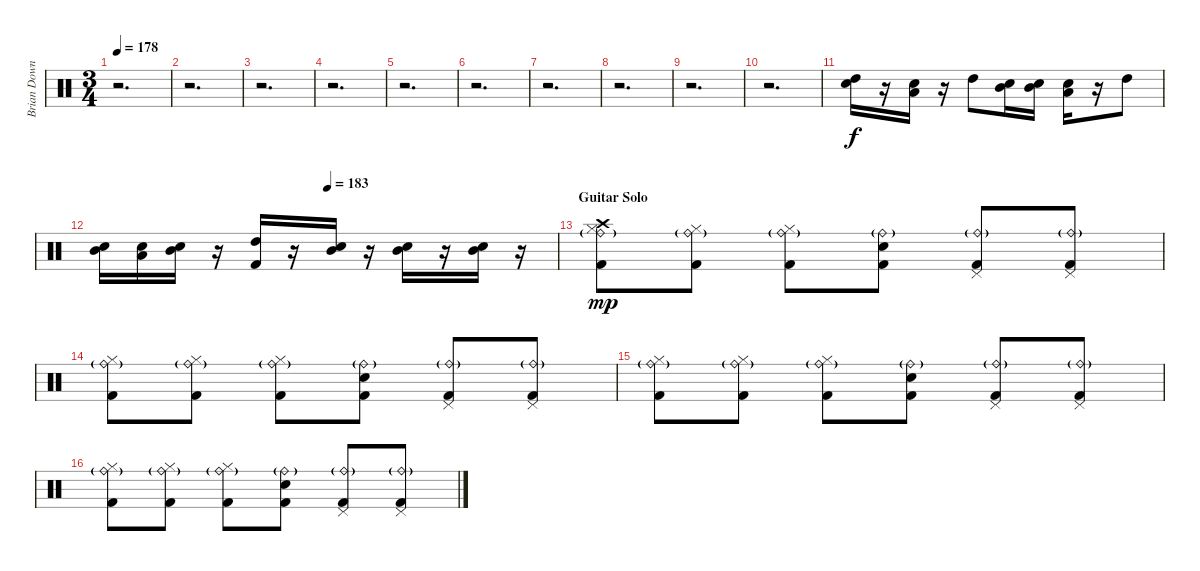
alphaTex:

\track ("Brian Downey" "Brian Down") {instrument percussion}
\staff {score}
\articulation defaults
\ts (3 4)
\tempo 178
\clef neutral
\ks c
r.2{d dy f} |
r.2{d} |
r.2{d} |
r.2{d} |
r.2{d} |
r.2{d} |
r.2{d} |
r.2{d} |
r.2{d} |
r.2{d} |
("High Tom (hit)" "Snare (hit) 2").16 r.16 ("Low Tom (hit)" "Electric Snare (hit)").16 r.16 "High Tom (hit)".8 ("Mid Tom (hit)" "Electric Snare (hit)").16 ("Mid Tom (hit)" "Electric Snare (hit)").16 ("Low Tom (hit)" "Snare (hit) 2").16 r.16 "High Tom (hit)".8 |
\tempo (183 0.5)
("Mid Tom (hit)" "Electric Snare (hit)").16 ("Low Tom (hit)" "Electric Snare (hit)").16 ("Mid Tom (hit)" "Snare (hit) 2").16 r.16 ("High Tom (hit)" "Kick (hit) 2").16 r.16 ("Electric Snare (hit)" "Mid Tom (hit)").16 r.16 ("Electric Snare (hit)" "Mid Tom (hit)").16 r.16 ("Electric Snare (hit)" "Mid Tom (hit)").16 r.16 |
\section ("" "Guitar Solo")
("Crash high (hit)" "Ride (bell)"{g} "Hi-Hat (closed)" "Kick (hit) 2").8{dy mp} ("Ride (bell)"{g} "Hi-Hat (closed)" "Kick (hit) 2").8 ("Ride (bell)"{g} "Hi-Hat (closed)" "Kick (hit) 2").8 ("Ride (bell)"{g} "Snare (hit) 2" "Kick (hit) 2").8 ("Ride (bell)"{g} "Pedal Hi-Hat (hit)" "Kick (hit) 2").8 ("Ride (bell)"{g} "Pedal Hi-Hat (hit)" "Kick (hit) 2").8 |
("Ride (bell)"{g} "Hi-Hat (closed)" "Kick (hit) 2").8 ("Ride (bell)"{g} "Hi-Hat (closed)" "Kick (hit) 2").8 ("Ride (bell)"{g} "Hi-Hat (closed)" "Kick (hit) 2").8 ("Ride (bell)"{g} "Snare (hit) 2" "Kick (hit) 2").8 ("Ride (bell)"{g} "Pedal Hi-Hat (hit)" "Kick (hit) 2").8 ("Ride (bell)"{g} "Pedal Hi-Hat (hit)" "Kick (hit) 2").8 |
("Ride (bell)"{g} "Hi-Hat (closed)" "Kick (hit) 2").8 ("Ride (bell)"{g} "Hi-Hat (closed)" "Kick (hit) 2").8 ("Ride (bell)"{g} "Hi-Hat (closed)" "Kick (hit) 2").8 ("Ride (bell)"{g} "Snare (hit) 2" "Kick (hit) 2").8 ("Ride (bell)"{g} "Pedal Hi-Hat (hit)" "Kick (hit) 2").8 ("Ride (bell)"{g} "Pedal Hi-Hat (hit)" "Kick (hit) 2").8 |
("Ride (bell)"{g} "Hi-Hat (closed)" "Kick (hit) 2").8 ("Ride (bell)"{g} "Hi-Hat (closed)" "Kick (hit) 2").8 ("Ride (bell)"{g} "Hi-Hat (closed)" "Kick (hit) 2").8 ("Ride (bell)"{g} "Snare (hit) 2" "Kick (hit) 2").8 ("Ride (bell)"{g} "Pedal Hi-Hat (hit)" "Kick (hit) 2").8 ("Ride (bell)"{g} "Pedal Hi-Hat (hit)" "Kick (hit) 2").8
